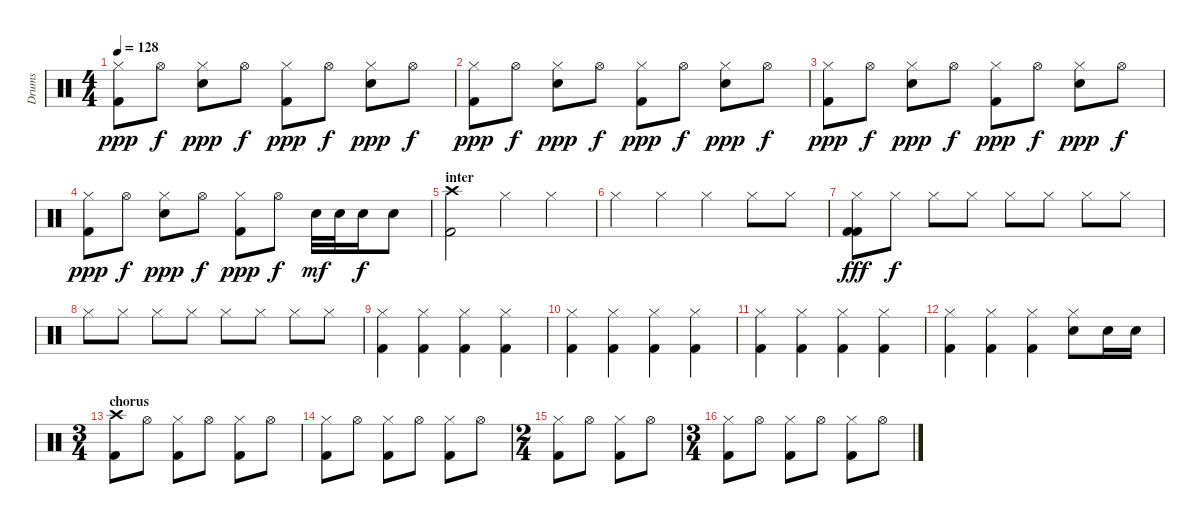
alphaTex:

\track ("Drums" "Drums") {instrument percussion}
\staff {score}
\articulation defaults
\ts (4 4)
\tempo 128
\clef neutral
\ks c
("Hi-Hat (closed)" "Kick (hit) 2").8{dy ppp} "Hi-Hat (open)".8{dy f} ("Hi-Hat (closed)" "Snare (hit) 2").8{dy ppp} "Hi-Hat (open)".8{dy f} ("Hi-Hat (closed)" "Kick (hit) 2").8{dy ppp} "Hi-Hat (open)".8{dy f} ("Hi-Hat (closed)" "Snare (hit) 2").8{dy ppp} "Hi-Hat (open)".8{dy f} |
("Hi-Hat (closed)" "Kick (hit) 2").8{dy ppp} "Hi-Hat (open)".8{dy f} ("Hi-Hat (closed)" "Snare (hit) 2").8{dy ppp} "Hi-Hat (open)".8{dy f} ("Hi-Hat (closed)" "Kick (hit) 2").8{dy ppp} "Hi-Hat (open)".8{dy f} ("Hi-Hat (closed)" "Snare (hit) 2").8{dy ppp} "Hi-Hat (open)".8{dy f} |
("Hi-Hat (closed)" "Kick (hit) 2").8{dy ppp} "Hi-Hat (open)".8{dy f} ("Hi-Hat (closed)" "Snare (hit) 2").8{dy ppp} "Hi-Hat (open)".8{dy f} ("Hi-Hat (closed)" "Kick (hit) 2").8{dy ppp} "Hi-Hat (open)".8{dy f} ("Hi-Hat (closed)" "Snare (hit) 2").8{dy ppp} "Hi-Hat (open)".8{dy f} |
("Hi-Hat (closed)" "Kick (hit) 2").8{dy ppp} "Hi-Hat (open)".8{dy f} ("Hi-Hat (closed)" "Snare (hit) 2").8{dy ppp} "Hi-Hat (open)".8{dy f} ("Hi-Hat (closed)" "Kick (hit) 2").8{dy ppp} "Hi-Hat (open)".8{dy f} "Snare (hit) 2".32{dy mf} "Snare (hit) 2".32 "Snare (hit) 2".16{dy f} "Snare (hit) 2".8 |
\section ("" "inter")
("Crash high (hit)" "Kick (hit) 2").2 "Hi-Hat (closed)".4 "Hi-Hat (closed)".4 |
"Hi-Hat (closed)".4 "Hi-Hat (closed)".4 "Hi-Hat (closed)".4 "Hi-Hat (closed)".8 "Hi-Hat (closed)".8 |
("Hi-Hat (closed)" "Kick (hit) 2" "Kick (hit) 2").8{dy fff} "Hi-Hat (closed)".8{dy f} "Hi-Hat (closed)".8 "Hi-Hat (closed)".8 "Hi-Hat (closed)".8 "Hi-Hat (closed)".8 "Hi-Hat (closed)".8 "Hi-Hat (closed)".8 |
"Hi-Hat (closed)".8 "Hi-Hat (closed)".8 "Hi-Hat (closed)".8 "Hi-Hat (closed)".8 "Hi-Hat (closed)".8 "Hi-Hat (closed)".8 "Hi-Hat (closed)".8 "Hi-Hat (closed)".8 |
("Hi-Hat (closed)" "Kick (hit) 2").4 ("Hi-Hat (closed)" "Kick (hit) 2").4 ("Hi-Hat (closed)" "Kick (hit) 2").4 ("Hi-Hat (closed)" "Kick (hit) 2").4 |
("Hi-Hat (closed)" "Kick (hit) 2").4 ("Hi-Hat (closed)" "Kick (hit) 2").4 ("Hi-Hat (closed)" "Kick (hit) 2").4 ("Hi-Hat (closed)" "Kick (hit) 2").4 |
("Hi-Hat (closed)" "Kick (hit) 2").4 ("Hi-Hat (closed)" "Kick (hit) 2").4 ("Hi-Hat (closed)" "Kick (hit) 2").4 ("Hi-Hat (closed)" "Kick (hit) 2").4 |
("Hi-Hat (closed)" "Kick (hit) 2").4 ("Hi-Hat (closed)" "Kick (hit) 2").4 ("Hi-Hat (closed)" "Kick (hit) 2").4 ("Hi-Hat (closed)" "Snare (hit) 2").8 "Snare (hit) 2".16 "Snare (hit) 2".16 |
\ts (3 4)
\section ("" "chorus")
("Crash high (hit)" "Kick (hit) 2").8 "Hi-Hat (open)".8 ("Hi-Hat (closed)" "Kick (hit) 2").8 "Hi-Hat (open)".8 ("Hi-Hat (closed)" "Kick (hit) 2").8 "Hi-Hat (open)".8 |
("Hi-Hat (closed)" "Kick (hit) 2").8 "Hi-Hat (open)".8 ("Hi-Hat (closed)" "Kick (hit) 2").8 "Hi-Hat (open)".8 ("Hi-Hat (closed)" "Kick (hit) 2").8 "Hi-Hat (open)".8 |
\ts (2 4)
("Hi-Hat (closed)" "Kick (hit) 2").8 "Hi-Hat (open)".8 ("Hi-Hat (closed)" "Kick (hit) 2").8 "Hi-Hat (open)".8 |
\ts (3 4)
("Hi-Hat (closed)" "Kick (hit) 2").8 "Hi-Hat (open)".8 ("Hi-Hat (closed)" "Kick (hit) 2").8 "Hi-Hat (open)".8 ("Hi-Hat (closed)" "Kick (hit) 2").8 "Hi-Hat (open)".8
